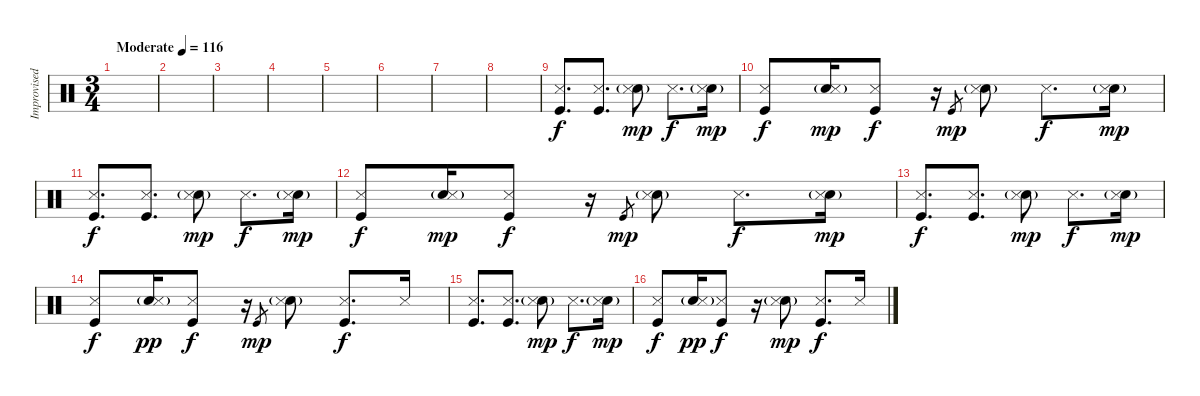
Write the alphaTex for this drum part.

\track ("Improvised Drums" "Improvised") {instrument percussion}
\staff {score}
\articulation defaults
\ts (3 4)
\tempo (116 "Moderate")
\clef neutral
\ks c
|
|
|
|
|
|
|
|
("Metronome (hit)" "Kick (hit)").8{d} ("Metronome (hit)" "Kick (hit)").8{d} ("Electric Snare (hit)"{g} "Metronome (hit)").8{dy mp} "Metronome (hit)".8{d dy f} ("Electric Snare (hit)"{g} "Metronome (hit)").16{dy mp} |
("Metronome (hit)" "Kick (hit)").8{dy f} ("Electric Snare (hit)"{g} "Metronome (hit)").16{dy mp} ("Kick (hit)" "Metronome (hit)").8{dy f} r.16 "Kick (hit)".8{gr dy mp} ("Electric Snare (hit)"{g} "Metronome (hit)").8 "Metronome (hit)".8{d dy f} ("Electric Snare (hit)"{g} "Metronome (hit)").16{dy mp} |
("Metronome (hit)" "Kick (hit)").8{d dy f} ("Metronome (hit)" "Kick (hit)").8{d} ("Electric Snare (hit)"{g} "Metronome (hit)").8{dy mp} "Metronome (hit)".8{d dy f} ("Electric Snare (hit)"{g} "Metronome (hit)").16{dy mp} |
("Metronome (hit)" "Kick (hit)").8{dy f} ("Electric Snare (hit)"{g} "Metronome (hit)").16{dy mp} ("Kick (hit)" "Metronome (hit)").8{dy f} r.16 "Kick (hit)".8{gr dy mp} ("Electric Snare (hit)"{g} "Metronome (hit)").8 "Metronome (hit)".8{d dy f} ("Electric Snare (hit)"{g} "Metronome (hit)").16{dy mp} |
("Metronome (hit)" "Kick (hit)").8{d dy f} ("Metronome (hit)" "Kick (hit)").8{d} ("Electric Snare (hit)"{g} "Metronome (hit)").8{dy mp} "Metronome (hit)".8{d dy f} ("Electric Snare (hit)"{g} "Metronome (hit)").16{dy mp} |
("Metronome (hit)" "Kick (hit)").8{dy f} ("Electric Snare (hit)"{g} "Metronome (hit)").16{dy pp} ("Kick (hit)" "Metronome (hit)").8{dy f} r.16 "Kick (hit)".8{gr dy mp} ("Electric Snare (hit)"{g} "Metronome (hit)").8 ("Kick (hit)" "Metronome (hit)").8{d dy f} "Metronome (hit)".16 |
("Metronome (hit)" "Kick (hit)").8{d} ("Metronome (hit)" "Kick (hit)").8{d} ("Electric Snare (hit)"{g} "Metronome (hit)").8{dy mp} "Metronome (hit)".8{d dy f} ("Electric Snare (hit)"{g} "Metronome (hit)").16{dy mp} |
("Metronome (hit)" "Kick (hit)").8{dy f} ("Electric Snare (hit)"{g} "Metronome (hit)").16{dy pp} ("Kick (hit)" "Metronome (hit)").8{dy f} r.16 ("Electric Snare (hit)"{g} "Metronome (hit)").8{dy mp} ("Kick (hit)" "Metronome (hit)").8{d dy f} "Metronome (hit)".16
